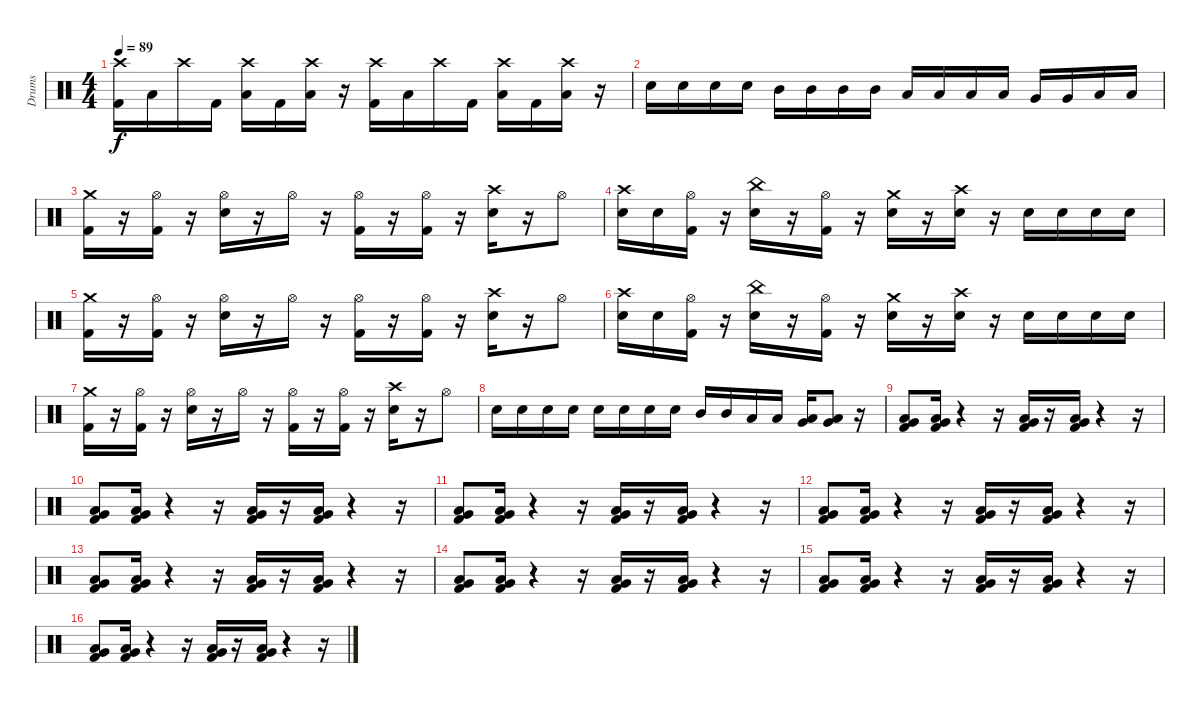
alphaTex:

\track ("Drums" "Drums") {instrument percussion}
\staff {score}
\articulation defaults
\ts (4 4)
\tempo 89
\clef neutral
\ks c
("Kick (hit) 2" "Crash high (hit)").16{dy f} "Low Tom (hit)".16 "Crash high (hit)".16 "Kick (hit) 2".16 ("Low Tom (hit)" "Crash high (hit)").16 "Kick (hit) 2".16 ("Low Floor Tom (hit)" "Crash high (hit)").16 r.16 ("Kick (hit) 2" "Crash high (hit)").16 "Low Tom (hit)".16 "Crash high (hit)".16 "Kick (hit) 2".16 ("Low Tom (hit)" "Crash high (hit)").16 "Kick (hit) 2".16 ("Low Floor Tom (hit)" "Crash high (hit)").16 r.16 |
"Snare (hit) 2".16 "Snare (hit) 2".16 "Snare (hit) 2".16 "Snare (hit) 2".16 "Mid Tom (hit)".16 "Mid Tom (hit)".16 "Mid Tom (hit)".16 "Mid Tom (hit)".16 "Low Tom (hit)".16 "Low Tom (hit)".16 "Low Tom (hit)".16 "Low Tom (hit)".16 "Very Low Tom (hit)".16 "Very Low Tom (hit)".16 "Low Floor Tom (hit)".16 "Low Floor Tom (hit)".16 |
("Kick (hit) 2" "Crash medium (hit)").16 r.16 ("Hi-Hat (open)" "Kick (hit) 2").16 r.16 ("Snare (hit) 2" "Hi-Hat (open)").16 r.16 "Hi-Hat (open)".16 r.16 ("Hi-Hat (open)" "Kick (hit) 2").16 r.16 ("Hi-Hat (open)" "Kick (hit) 2").16 r.16 ("Snare (hit) 2" "Crash high (hit)").16 r.16 "Hi-Hat (open)".8 |
("Crash high (hit)" "Snare (hit) 2").16 "Snare (hit) 2".16 ("Kick (hit) 2" "Hi-Hat (open)").16 r.16 ("China (hit)" "Snare (hit) 2").16 r.16 ("Kick (hit) 2" "Hi-Hat (open)").16 r.16 ("Crash medium (hit)" "Snare (hit) 2").16 r.16 ("Crash high (hit)" "Snare (hit) 2").16 r.16 "Snare (hit) 2".16 "Snare (hit) 2".16 "Snare (hit) 2".16 "Snare (hit) 2".16 |
("Crash medium (hit)" "Kick (hit) 2").16 r.16 ("Hi-Hat (open)" "Kick (hit) 2").16 r.16 ("Hi-Hat (open)" "Snare (hit) 2").16 r.16 "Hi-Hat (open)".16 r.16 ("Kick (hit) 2" "Hi-Hat (open)").16 r.16 ("Hi-Hat (open)" "Kick (hit) 2").16 r.16 ("Crash high (hit)" "Snare (hit) 2").16 r.16 "Hi-Hat (open)".8 |
("Crash high (hit)" "Snare (hit) 2").16 "Snare (hit) 2".16 ("Kick (hit) 2" "Hi-Hat (open)").16 r.16 ("China (hit)" "Snare (hit) 2").16 r.16 ("Kick (hit) 2" "Hi-Hat (open)").16 r.16 ("Crash medium (hit)" "Snare (hit) 2").16 r.16 ("Crash high (hit)" "Snare (hit) 2").16 r.16 "Snare (hit) 2".16 "Snare (hit) 2".16 "Snare (hit) 2".16 "Snare (hit) 2".16 |
("Crash medium (hit)" "Kick (hit) 2").16 r.16 ("Hi-Hat (open)" "Kick (hit) 2").16 r.16 ("Hi-Hat (open)" "Snare (hit) 2").16 r.16 "Hi-Hat (open)".16 r.16 ("Kick (hit) 2" "Hi-Hat (open)").16 r.16 ("Hi-Hat (open)" "Kick (hit) 2").16 r.16 ("Crash high (hit)" "Snare (hit) 2").16 r.16 "Hi-Hat (open)".8 |
"Snare (hit) 2".16 "Snare (hit) 2".16 "Snare (hit) 2".16 "Snare (hit) 2".16 "Snare (hit) 2".16 "Snare (hit) 2".16 "Snare (hit) 2".16 "Snare (hit) 2".16 "Mid Tom (hit)".16 "Mid Tom (hit)".16 "Low Tom (hit)".16 "Low Tom (hit)".16 ("Low Tom (hit)" "Very Low Tom (hit)").16 ("Low Tom (hit)" "Very Low Tom (hit)").8 r.16 |
("Very Low Tom (hit)" "Low Tom (hit)" "Kick (hit) 2").8 ("Low Tom (hit)" "Very Low Tom (hit)" "Kick (hit) 2").16 r.4 r.16 ("Low Tom (hit)" "Very Low Tom (hit)" "Kick (hit) 2").16 r.16 ("Low Tom (hit)" "Very Low Tom (hit)" "Kick (hit) 2").16 r.4 r.16 |
("Very Low Tom (hit)" "Low Tom (hit)" "Kick (hit) 2").8 ("Low Tom (hit)" "Very Low Tom (hit)" "Kick (hit) 2").16 r.4 r.16 ("Low Tom (hit)" "Very Low Tom (hit)" "Kick (hit) 2").16 r.16 ("Low Tom (hit)" "Very Low Tom (hit)" "Kick (hit) 2").16 r.4 r.16 |
("Very Low Tom (hit)" "Low Tom (hit)" "Kick (hit) 2").8 ("Low Tom (hit)" "Very Low Tom (hit)" "Kick (hit) 2").16 r.4 r.16 ("Low Tom (hit)" "Very Low Tom (hit)" "Kick (hit) 2").16 r.16 ("Low Tom (hit)" "Very Low Tom (hit)" "Kick (hit) 2").16 r.4 r.16 |
("Very Low Tom (hit)" "Low Tom (hit)" "Kick (hit) 2").8 ("Low Tom (hit)" "Very Low Tom (hit)" "Kick (hit) 2").16 r.4 r.16 ("Low Tom (hit)" "Very Low Tom (hit)" "Kick (hit) 2").16 r.16 ("Low Tom (hit)" "Very Low Tom (hit)" "Kick (hit) 2").16 r.4 r.16 |
("Very Low Tom (hit)" "Low Tom (hit)" "Kick (hit) 2").8 ("Low Tom (hit)" "Very Low Tom (hit)" "Kick (hit) 2").16 r.4 r.16 ("Low Tom (hit)" "Very Low Tom (hit)" "Kick (hit) 2").16 r.16 ("Low Tom (hit)" "Very Low Tom (hit)" "Kick (hit) 2").16 r.4 r.16 |
("Very Low Tom (hit)" "Low Tom (hit)" "Kick (hit) 2").8 ("Low Tom (hit)" "Very Low Tom (hit)" "Kick (hit) 2").16 r.4 r.16 ("Low Tom (hit)" "Very Low Tom (hit)" "Kick (hit) 2").16 r.16 ("Low Tom (hit)" "Very Low Tom (hit)" "Kick (hit) 2").16 r.4 r.16 |
("Very Low Tom (hit)" "Low Tom (hit)" "Kick (hit) 2").8 ("Low Tom (hit)" "Very Low Tom (hit)" "Kick (hit) 2").16 r.4 r.16 ("Low Tom (hit)" "Very Low Tom (hit)" "Kick (hit) 2").16 r.16 ("Low Tom (hit)" "Very Low Tom (hit)" "Kick (hit) 2").16 r.4 r.16 |
("Very Low Tom (hit)" "Low Tom (hit)" "Kick (hit) 2").8 ("Low Tom (hit)" "Very Low Tom (hit)" "Kick (hit) 2").16 r.4 r.16 ("Low Tom (hit)" "Very Low Tom (hit)" "Kick (hit) 2").16 r.16 ("Low Tom (hit)" "Very Low Tom (hit)" "Kick (hit) 2").16 r.4 r.16
